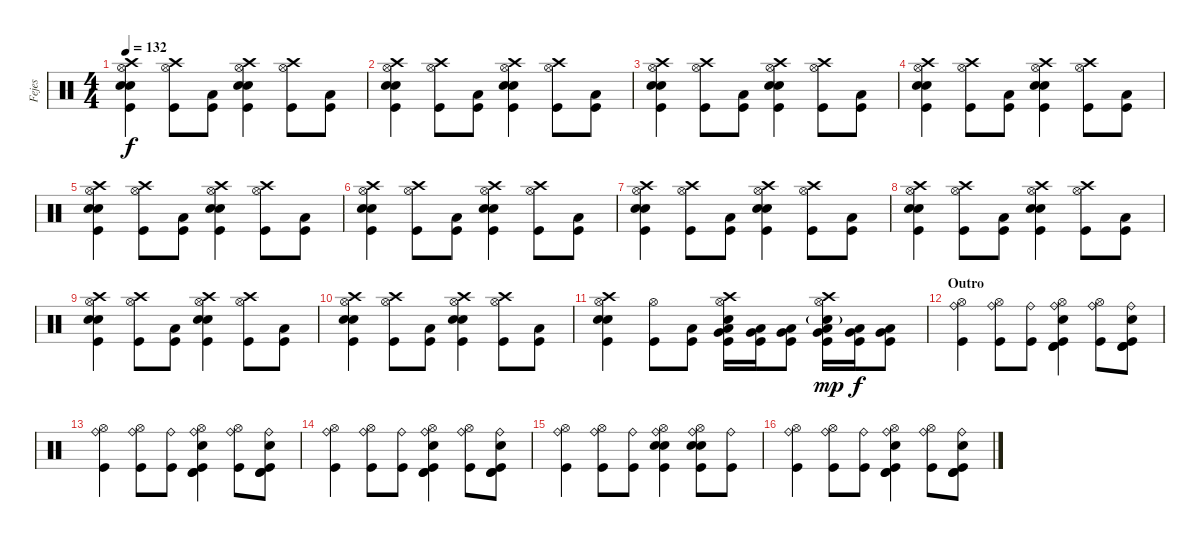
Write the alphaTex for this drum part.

\track ("Fejes" "Fejes") {instrument percussion}
\staff {score}
\articulation defaults
\ts (4 4)
\tempo 132
\clef neutral
\ks c
("Crash high (hit)" "Hi-Hat (open)" "Snare (hit) 2" "Snare (hit) 2" "Kick (hit)").4{dy f} ("Crash high (hit)" "Hi-Hat (open)" "Kick (hit)").8 ("Low Tom (hit)" "Kick (hit)").8 ("Crash high (hit)" "Hi-Hat (open)" "Snare (hit) 2" "Snare (hit) 2" "Kick (hit)").4 ("Crash high (hit)" "Hi-Hat (open)" "Kick (hit)").8 ("Low Tom (hit)" "Kick (hit)").8 |
("Crash high (hit)" "Hi-Hat (open)" "Snare (hit) 2" "Snare (hit) 2" "Kick (hit)").4 ("Crash high (hit)" "Hi-Hat (open)" "Kick (hit)").8 ("Low Tom (hit)" "Kick (hit)").8 ("Crash high (hit)" "Hi-Hat (open)" "Snare (hit) 2" "Snare (hit) 2" "Kick (hit)").4 ("Crash high (hit)" "Hi-Hat (open)" "Kick (hit)").8 ("Low Tom (hit)" "Kick (hit)").8 |
("Crash high (hit)" "Hi-Hat (open)" "Snare (hit) 2" "Snare (hit) 2" "Kick (hit)").4 ("Crash high (hit)" "Hi-Hat (open)" "Kick (hit)").8 ("Low Tom (hit)" "Kick (hit)").8 ("Crash high (hit)" "Hi-Hat (open)" "Snare (hit) 2" "Snare (hit) 2" "Kick (hit)").4 ("Crash high (hit)" "Hi-Hat (open)" "Kick (hit)").8 ("Low Tom (hit)" "Kick (hit)").8 |
("Crash high (hit)" "Hi-Hat (open)" "Snare (hit) 2" "Snare (hit) 2" "Kick (hit)").4 ("Crash high (hit)" "Hi-Hat (open)" "Kick (hit)").8 ("Low Tom (hit)" "Kick (hit)").8 ("Crash high (hit)" "Hi-Hat (open)" "Snare (hit) 2" "Snare (hit) 2" "Kick (hit)").4 ("Crash high (hit)" "Hi-Hat (open)" "Kick (hit)").8 ("Low Tom (hit)" "Kick (hit)").8 |
("Crash high (hit)" "Hi-Hat (open)" "Snare (hit) 2" "Snare (hit) 2" "Kick (hit)").4 ("Crash high (hit)" "Hi-Hat (open)" "Kick (hit)").8 ("Low Tom (hit)" "Kick (hit)").8 ("Crash high (hit)" "Hi-Hat (open)" "Snare (hit) 2" "Snare (hit) 2" "Kick (hit)").4 ("Crash high (hit)" "Hi-Hat (open)" "Kick (hit)").8 ("Low Tom (hit)" "Kick (hit)").8 |
("Crash high (hit)" "Hi-Hat (open)" "Snare (hit) 2" "Snare (hit) 2" "Kick (hit)").4 ("Crash high (hit)" "Hi-Hat (open)" "Kick (hit)").8 ("Low Tom (hit)" "Kick (hit)").8 ("Crash high (hit)" "Hi-Hat (open)" "Snare (hit) 2" "Snare (hit) 2" "Kick (hit)").4 ("Crash high (hit)" "Hi-Hat (open)" "Kick (hit)").8 ("Low Tom (hit)" "Kick (hit)").8 |
("Crash high (hit)" "Hi-Hat (open)" "Snare (hit) 2" "Snare (hit) 2" "Kick (hit)").4 ("Crash high (hit)" "Hi-Hat (open)" "Kick (hit)").8 ("Low Tom (hit)" "Kick (hit)").8 ("Crash high (hit)" "Hi-Hat (open)" "Snare (hit) 2" "Snare (hit) 2" "Kick (hit)").4 ("Crash high (hit)" "Hi-Hat (open)" "Kick (hit)").8 ("Low Tom (hit)" "Kick (hit)").8 |
("Crash high (hit)" "Hi-Hat (open)" "Snare (hit) 2" "Snare (hit) 2" "Kick (hit)").4 ("Crash high (hit)" "Hi-Hat (open)" "Kick (hit)").8 ("Low Tom (hit)" "Kick (hit)").8 ("Crash high (hit)" "Hi-Hat (open)" "Snare (hit) 2" "Snare (hit) 2" "Kick (hit)").4 ("Crash high (hit)" "Hi-Hat (open)" "Kick (hit)").8 ("Low Tom (hit)" "Kick (hit)").8 |
("Crash high (hit)" "Hi-Hat (open)" "Snare (hit) 2" "Snare (hit) 2" "Kick (hit)").4 ("Crash high (hit)" "Hi-Hat (open)" "Kick (hit)").8 ("Low Tom (hit)" "Kick (hit)").8 ("Crash high (hit)" "Hi-Hat (open)" "Snare (hit) 2" "Snare (hit) 2" "Kick (hit)").4 ("Crash high (hit)" "Hi-Hat (open)" "Kick (hit)").8 ("Low Tom (hit)" "Kick (hit)").8 |
("Crash high (hit)" "Hi-Hat (open)" "Snare (hit) 2" "Snare (hit) 2" "Kick (hit)").4 ("Crash high (hit)" "Hi-Hat (open)" "Kick (hit)").8 ("Low Tom (hit)" "Kick (hit)").8 ("Crash high (hit)" "Hi-Hat (open)" "Snare (hit) 2" "Snare (hit) 2" "Kick (hit)").4 ("Crash high (hit)" "Hi-Hat (open)" "Kick (hit)").8 ("Low Tom (hit)" "Kick (hit)").8 |
("Crash high (hit)" "Hi-Hat (open)" "Snare (hit) 2" "Snare (hit) 2" "Kick (hit)").4 ("Hi-Hat (open)" "Kick (hit)").8 ("Low Tom (hit)" "Kick (hit)").8 ("Crash high (hit)" "Hi-Hat (open)" "Snare (hit) 2" "Low Floor Tom (hit)" "Very Low Tom (hit)" "Kick (hit)").16 ("Low Floor Tom (hit)" "Very Low Tom (hit)" "Kick (hit)").16 ("Low Floor Tom (hit)" "Very Low Tom (hit)" "Kick (hit)").8 ("Crash high (hit)" "Hi-Hat (open)" "Snare (hit) 2"{g} "Low Floor Tom (hit)" "Very Low Tom (hit)" "Kick (hit)").16{dy mp} ("Low Floor Tom (hit)" "Very Low Tom (hit)" "Kick (hit)").16{dy f} ("Low Floor Tom (hit)" "Very Low Tom (hit)" "Kick (hit)").8 |
\section ("" "Outro")
("Ride (bell)" "Hi-Hat (open)" "Kick (hit)").4 ("Ride (bell)" "Hi-Hat (open)" "Kick (hit)").8 ("Ride (bell)" "Kick (hit)").8 ("Ride (bell)" "Hi-Hat (open)" "Snare (hit) 2" "Timbale high (hit)" "Timbale high (hit)" "Kick (hit)").4 ("Ride (bell)" "Hi-Hat (open)" "Kick (hit)").8 ("Ride (bell)" "Snare (hit) 2" "Timbale high (hit)" "Timbale high (hit)" "Kick (hit)").8 |
("Ride (bell)" "Hi-Hat (open)" "Kick (hit)").4 ("Ride (bell)" "Hi-Hat (open)" "Kick (hit)").8 ("Ride (bell)" "Kick (hit)").8 ("Ride (bell)" "Hi-Hat (open)" "Snare (hit) 2" "Timbale high (hit)" "Timbale high (hit)" "Kick (hit)").4 ("Ride (bell)" "Hi-Hat (open)" "Kick (hit)").8 ("Ride (bell)" "Snare (hit) 2" "Timbale high (hit)" "Timbale high (hit)" "Kick (hit)").8 |
("Ride (bell)" "Hi-Hat (open)" "Kick (hit)").4 ("Ride (bell)" "Hi-Hat (open)" "Kick (hit)").8 ("Ride (bell)" "Kick (hit)").8 ("Ride (bell)" "Hi-Hat (open)" "Snare (hit) 2" "Timbale high (hit)" "Timbale high (hit)" "Kick (hit)").4 ("Ride (bell)" "Hi-Hat (open)" "Kick (hit)").8 ("Ride (bell)" "Snare (hit) 2" "Timbale high (hit)" "Timbale high (hit)" "Kick (hit)").8 |
("Ride (bell)" "Hi-Hat (open)" "Kick (hit)").4 ("Ride (bell)" "Hi-Hat (open)" "Kick (hit)").8 ("Ride (bell)" "Kick (hit)").8 ("Ride (bell)" "Hi-Hat (open)" "Snare (hit) 2" "Snare (hit) 2" "Kick (hit)").4 ("Ride (bell)" "Hi-Hat (open)" "Snare (hit) 2" "Snare (hit) 2" "Kick (hit)").8 ("Ride (bell)" "Kick (hit)").8 |
("Ride (bell)" "Hi-Hat (open)" "Kick (hit)").4 ("Ride (bell)" "Hi-Hat (open)" "Kick (hit)").8 ("Ride (bell)" "Kick (hit)").8 ("Ride (bell)" "Hi-Hat (open)" "Snare (hit) 2" "Timbale high (hit)" "Timbale high (hit)" "Kick (hit)").4 ("Ride (bell)" "Hi-Hat (open)" "Kick (hit)").8 ("Ride (bell)" "Snare (hit) 2" "Timbale high (hit)" "Timbale high (hit)" "Kick (hit)").8
